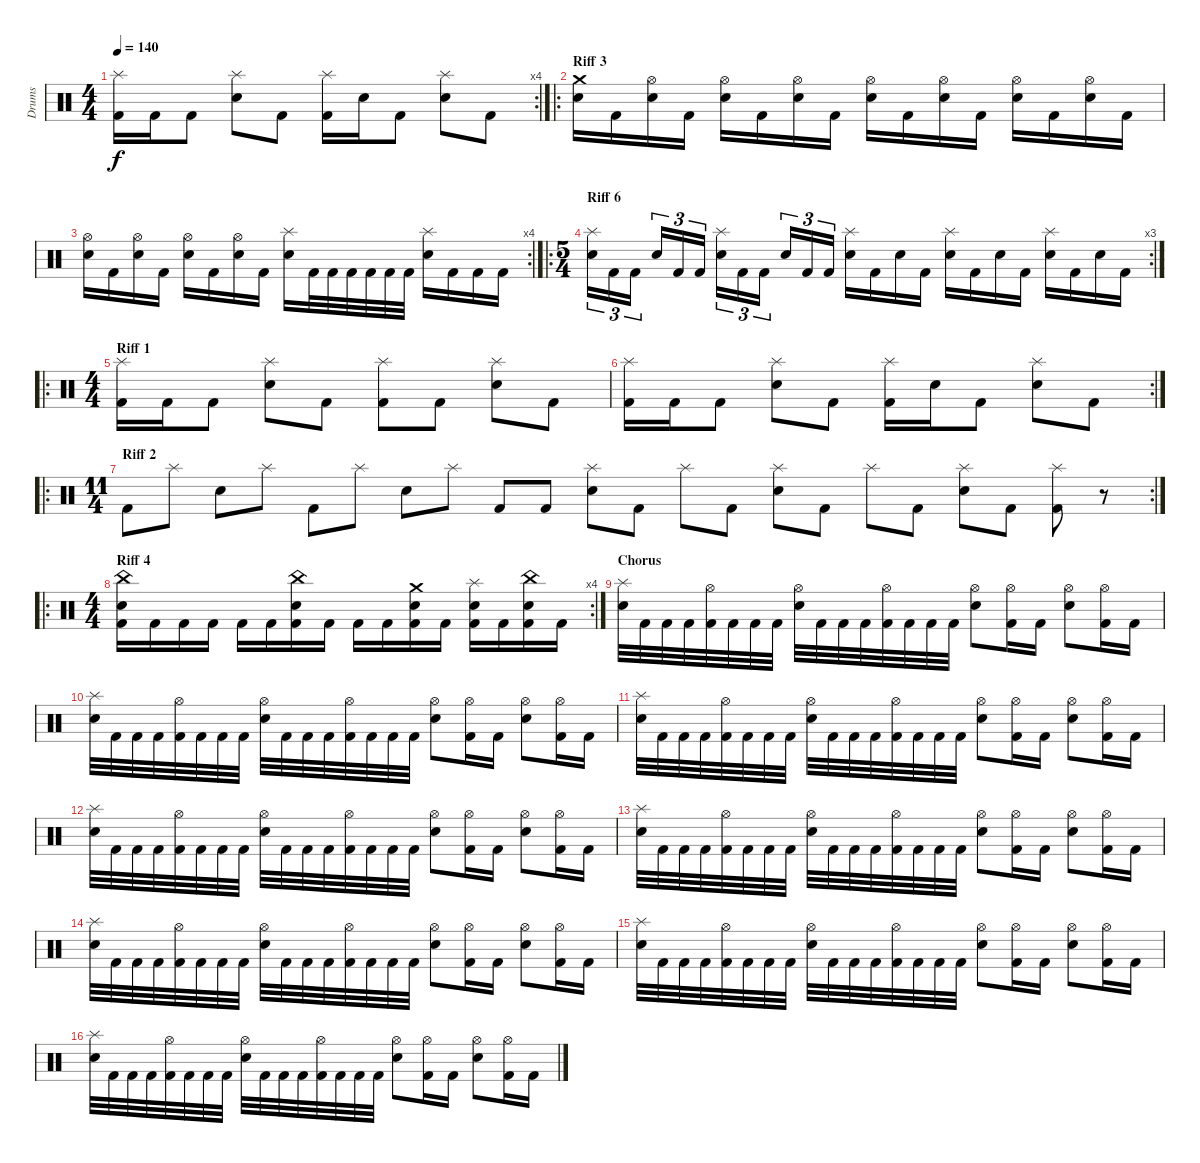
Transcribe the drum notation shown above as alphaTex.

\track ("Drums" "Drums") {instrument percussion}
\staff {score}
\articulation defaults
\rc 4
\ts (4 4)
\tempo 140
\clef neutral
\ks c
("Kick (hit) 2" "Splash (hit)").16{dy f} "Kick (hit) 2".16 "Kick (hit) 2".8 ("Snare (hit) 2" "Splash (hit)").8 "Kick (hit) 2".8 ("Kick (hit) 2" "Splash (hit)").16 "Snare (hit) 2".16 "Kick (hit) 2".8 ("Snare (hit) 2" "Splash (hit)").8 "Kick (hit) 2".8 |
\ro
\section ("" "Riff 3")
("Snare (hit) 2" "Crash medium (hit)").16 "Kick (hit) 2".16 ("Snare (hit) 2" "Hi-Hat (open)").16 "Kick (hit) 2".16 ("Snare (hit) 2" "Hi-Hat (open)").16 "Kick (hit) 2".16 ("Snare (hit) 2" "Hi-Hat (open)").16 "Kick (hit) 2".16 ("Snare (hit) 2" "Hi-Hat (open)").16 "Kick (hit) 2".16 ("Snare (hit) 2" "Hi-Hat (open)").16 "Kick (hit) 2".16 ("Snare (hit) 2" "Hi-Hat (open)").16 "Kick (hit) 2".16 ("Snare (hit) 2" "Hi-Hat (open)").16 "Kick (hit) 2".16 |
\rc 4
("Snare (hit) 2" "Hi-Hat (open)").16 "Kick (hit) 2".16 ("Snare (hit) 2" "Hi-Hat (open)").16 "Kick (hit) 2".16 ("Snare (hit) 2" "Hi-Hat (open)").16 "Kick (hit) 2".16 ("Snare (hit) 2" "Hi-Hat (open)").16 "Kick (hit) 2".16 ("Snare (hit) 2" "Splash (hit)").16 "Kick (hit) 2".32 "Kick (hit) 2".32 "Kick (hit) 2".32 "Kick (hit) 2".32 "Kick (hit) 2".32 "Kick (hit) 2".32 ("Snare (hit) 2" "Splash (hit)").16 "Kick (hit) 2".16 "Kick (hit) 2".16 "Kick (hit) 2".16 |
\ro
\rc 3
\ts (5 4)
\section ("" "Riff 6")
("Snare (hit) 2" "Splash (hit)").16{tu (3 2)} "Kick (hit) 2".16{tu (3 2)} "Kick (hit) 2".16{tu (3 2)} "Snare (hit) 2".16{tu (3 2)} "Kick (hit) 2".16{tu (3 2)} "Kick (hit) 2".16{tu (3 2)} ("Snare (hit) 2" "Splash (hit)").16{tu (3 2)} "Kick (hit) 2".16{tu (3 2)} "Kick (hit) 2".16{tu (3 2)} "Snare (hit) 2".16{tu (3 2)} "Kick (hit) 2".16{tu (3 2)} "Kick (hit) 2".16{tu (3 2)} ("Snare (hit) 2" "Splash (hit)").16 "Kick (hit) 2".16 "Snare (hit) 2".16 "Kick (hit) 2".16 ("Snare (hit) 2" "Splash (hit)").16 "Kick (hit) 2".16 "Snare (hit) 2".16 "Kick (hit) 2".16 ("Snare (hit) 2" "Splash (hit)").16 "Kick (hit) 2".16 "Snare (hit) 2".16 "Kick (hit) 2".16 |
\ro
\ts (4 4)
\section ("" "Riff 1")
("Kick (hit) 2" "Splash (hit)").16 "Kick (hit) 2".16 "Kick (hit) 2".8 ("Snare (hit) 2" "Splash (hit)").8 "Kick (hit) 2".8 ("Kick (hit) 2" "Splash (hit)").8 "Kick (hit) 2".8 ("Snare (hit) 2" "Splash (hit)").8 "Kick (hit) 2".8 |
\rc 2
("Kick (hit) 2" "Splash (hit)").16 "Kick (hit) 2".16 "Kick (hit) 2".8 ("Snare (hit) 2" "Splash (hit)").8 "Kick (hit) 2".8 ("Kick (hit) 2" "Splash (hit)").16 "Snare (hit) 2".16 "Kick (hit) 2".8 ("Snare (hit) 2" "Splash (hit)").8 "Kick (hit) 2".8 |
\ro
\rc 2
\ts (11 4)
\section ("" "Riff 2")
"Kick (hit) 2".8 "Splash (hit)".8 "Snare (hit) 2".8 "Splash (hit)".8 "Kick (hit) 2".8 "Splash (hit)".8 "Snare (hit) 2".8 "Splash (hit)".8 "Kick (hit) 2".8 "Kick (hit) 2".8 ("Snare (hit) 2" "Splash (hit)").8 "Kick (hit) 2".8 "Splash (hit)".8 "Kick (hit) 2".8 ("Snare (hit) 2" "Splash (hit)").8 "Kick (hit) 2".8 "Splash (hit)".8 "Kick (hit) 2".8 ("Snare (hit) 2" "Splash (hit)").8 "Kick (hit) 2".8 ("Kick (hit) 2" "Splash (hit)").8 r.8 |
\ro
\rc 4
\ts (4 4)
\section ("" "Riff 4")
("Kick (hit) 2" "Snare (hit) 2" "China (hit)").16 "Kick (hit) 2".16 "Kick (hit) 2".16 "Kick (hit) 2".16 "Kick (hit) 2".16 "Kick (hit) 2".16 ("Kick (hit) 2" "Snare (hit) 2" "China (hit)").16 "Kick (hit) 2".16 "Kick (hit) 2".16 "Kick (hit) 2".16 ("Kick (hit) 2" "Snare (hit) 2" "Crash medium (hit)").16 "Kick (hit) 2".16 ("Kick (hit) 2" "Snare (hit) 2" "Splash (hit)").16 "Kick (hit) 2".16 ("Kick (hit) 2" "Snare (hit) 2" "China (hit)").16 "Kick (hit) 2".16 |
\section ("" "Chorus")
("Snare (hit) 2" "Splash (hit)").32 "Kick (hit) 2".32 "Kick (hit) 2".32 "Kick (hit) 2".32 ("Kick (hit) 2" "Hi-Hat (open)").32 "Kick (hit) 2".32 "Kick (hit) 2".32 "Kick (hit) 2".32 ("Snare (hit) 2" "Hi-Hat (open)").32 "Kick (hit) 2".32 "Kick (hit) 2".32 "Kick (hit) 2".32 ("Kick (hit) 2" "Hi-Hat (open)").32 "Kick (hit) 2".32 "Kick (hit) 2".32 "Kick (hit) 2".32 ("Snare (hit) 2" "Hi-Hat (open)").8 ("Kick (hit) 2" "Hi-Hat (open)").16 "Kick (hit) 2".16 ("Snare (hit) 2" "Hi-Hat (open)").8 ("Kick (hit) 2" "Hi-Hat (open)").16 "Kick (hit) 2".16 |
("Snare (hit) 2" "Splash (hit)").32 "Kick (hit) 2".32 "Kick (hit) 2".32 "Kick (hit) 2".32 ("Kick (hit) 2" "Hi-Hat (open)").32 "Kick (hit) 2".32 "Kick (hit) 2".32 "Kick (hit) 2".32 ("Snare (hit) 2" "Hi-Hat (open)").32 "Kick (hit) 2".32 "Kick (hit) 2".32 "Kick (hit) 2".32 ("Kick (hit) 2" "Hi-Hat (open)").32 "Kick (hit) 2".32 "Kick (hit) 2".32 "Kick (hit) 2".32 ("Snare (hit) 2" "Hi-Hat (open)").8 ("Kick (hit) 2" "Hi-Hat (open)").16 "Kick (hit) 2".16 ("Snare (hit) 2" "Hi-Hat (open)").8 ("Kick (hit) 2" "Hi-Hat (open)").16 "Kick (hit) 2".16 |
("Snare (hit) 2" "Splash (hit)").32 "Kick (hit) 2".32 "Kick (hit) 2".32 "Kick (hit) 2".32 ("Kick (hit) 2" "Hi-Hat (open)").32 "Kick (hit) 2".32 "Kick (hit) 2".32 "Kick (hit) 2".32 ("Snare (hit) 2" "Hi-Hat (open)").32 "Kick (hit) 2".32 "Kick (hit) 2".32 "Kick (hit) 2".32 ("Kick (hit) 2" "Hi-Hat (open)").32 "Kick (hit) 2".32 "Kick (hit) 2".32 "Kick (hit) 2".32 ("Snare (hit) 2" "Hi-Hat (open)").8 ("Kick (hit) 2" "Hi-Hat (open)").16 "Kick (hit) 2".16 ("Snare (hit) 2" "Hi-Hat (open)").8 ("Kick (hit) 2" "Hi-Hat (open)").16 "Kick (hit) 2".16 |
("Snare (hit) 2" "Splash (hit)").32 "Kick (hit) 2".32 "Kick (hit) 2".32 "Kick (hit) 2".32 ("Kick (hit) 2" "Hi-Hat (open)").32 "Kick (hit) 2".32 "Kick (hit) 2".32 "Kick (hit) 2".32 ("Snare (hit) 2" "Hi-Hat (open)").32 "Kick (hit) 2".32 "Kick (hit) 2".32 "Kick (hit) 2".32 ("Kick (hit) 2" "Hi-Hat (open)").32 "Kick (hit) 2".32 "Kick (hit) 2".32 "Kick (hit) 2".32 ("Snare (hit) 2" "Hi-Hat (open)").8 ("Kick (hit) 2" "Hi-Hat (open)").16 "Kick (hit) 2".16 ("Snare (hit) 2" "Hi-Hat (open)").8 ("Kick (hit) 2" "Hi-Hat (open)").16 "Kick (hit) 2".16 |
("Snare (hit) 2" "Splash (hit)").32 "Kick (hit) 2".32 "Kick (hit) 2".32 "Kick (hit) 2".32 ("Kick (hit) 2" "Hi-Hat (open)").32 "Kick (hit) 2".32 "Kick (hit) 2".32 "Kick (hit) 2".32 ("Snare (hit) 2" "Hi-Hat (open)").32 "Kick (hit) 2".32 "Kick (hit) 2".32 "Kick (hit) 2".32 ("Kick (hit) 2" "Hi-Hat (open)").32 "Kick (hit) 2".32 "Kick (hit) 2".32 "Kick (hit) 2".32 ("Snare (hit) 2" "Hi-Hat (open)").8 ("Kick (hit) 2" "Hi-Hat (open)").16 "Kick (hit) 2".16 ("Snare (hit) 2" "Hi-Hat (open)").8 ("Kick (hit) 2" "Hi-Hat (open)").16 "Kick (hit) 2".16 |
("Snare (hit) 2" "Splash (hit)").32 "Kick (hit) 2".32 "Kick (hit) 2".32 "Kick (hit) 2".32 ("Kick (hit) 2" "Hi-Hat (open)").32 "Kick (hit) 2".32 "Kick (hit) 2".32 "Kick (hit) 2".32 ("Snare (hit) 2" "Hi-Hat (open)").32 "Kick (hit) 2".32 "Kick (hit) 2".32 "Kick (hit) 2".32 ("Kick (hit) 2" "Hi-Hat (open)").32 "Kick (hit) 2".32 "Kick (hit) 2".32 "Kick (hit) 2".32 ("Snare (hit) 2" "Hi-Hat (open)").8 ("Kick (hit) 2" "Hi-Hat (open)").16 "Kick (hit) 2".16 ("Snare (hit) 2" "Hi-Hat (open)").8 ("Kick (hit) 2" "Hi-Hat (open)").16 "Kick (hit) 2".16 |
("Snare (hit) 2" "Splash (hit)").32 "Kick (hit) 2".32 "Kick (hit) 2".32 "Kick (hit) 2".32 ("Kick (hit) 2" "Hi-Hat (open)").32 "Kick (hit) 2".32 "Kick (hit) 2".32 "Kick (hit) 2".32 ("Snare (hit) 2" "Hi-Hat (open)").32 "Kick (hit) 2".32 "Kick (hit) 2".32 "Kick (hit) 2".32 ("Kick (hit) 2" "Hi-Hat (open)").32 "Kick (hit) 2".32 "Kick (hit) 2".32 "Kick (hit) 2".32 ("Snare (hit) 2" "Hi-Hat (open)").8 ("Kick (hit) 2" "Hi-Hat (open)").16 "Kick (hit) 2".16 ("Snare (hit) 2" "Hi-Hat (open)").8 ("Kick (hit) 2" "Hi-Hat (open)").16 "Kick (hit) 2".16 |
("Snare (hit) 2" "Splash (hit)").32 "Kick (hit) 2".32 "Kick (hit) 2".32 "Kick (hit) 2".32 ("Kick (hit) 2" "Hi-Hat (open)").32 "Kick (hit) 2".32 "Kick (hit) 2".32 "Kick (hit) 2".32 ("Snare (hit) 2" "Hi-Hat (open)").32 "Kick (hit) 2".32 "Kick (hit) 2".32 "Kick (hit) 2".32 ("Kick (hit) 2" "Hi-Hat (open)").32 "Kick (hit) 2".32 "Kick (hit) 2".32 "Kick (hit) 2".32 ("Snare (hit) 2" "Hi-Hat (open)").8 ("Kick (hit) 2" "Hi-Hat (open)").16 "Kick (hit) 2".16 ("Snare (hit) 2" "Hi-Hat (open)").8 ("Kick (hit) 2" "Hi-Hat (open)").16 "Kick (hit) 2".16
